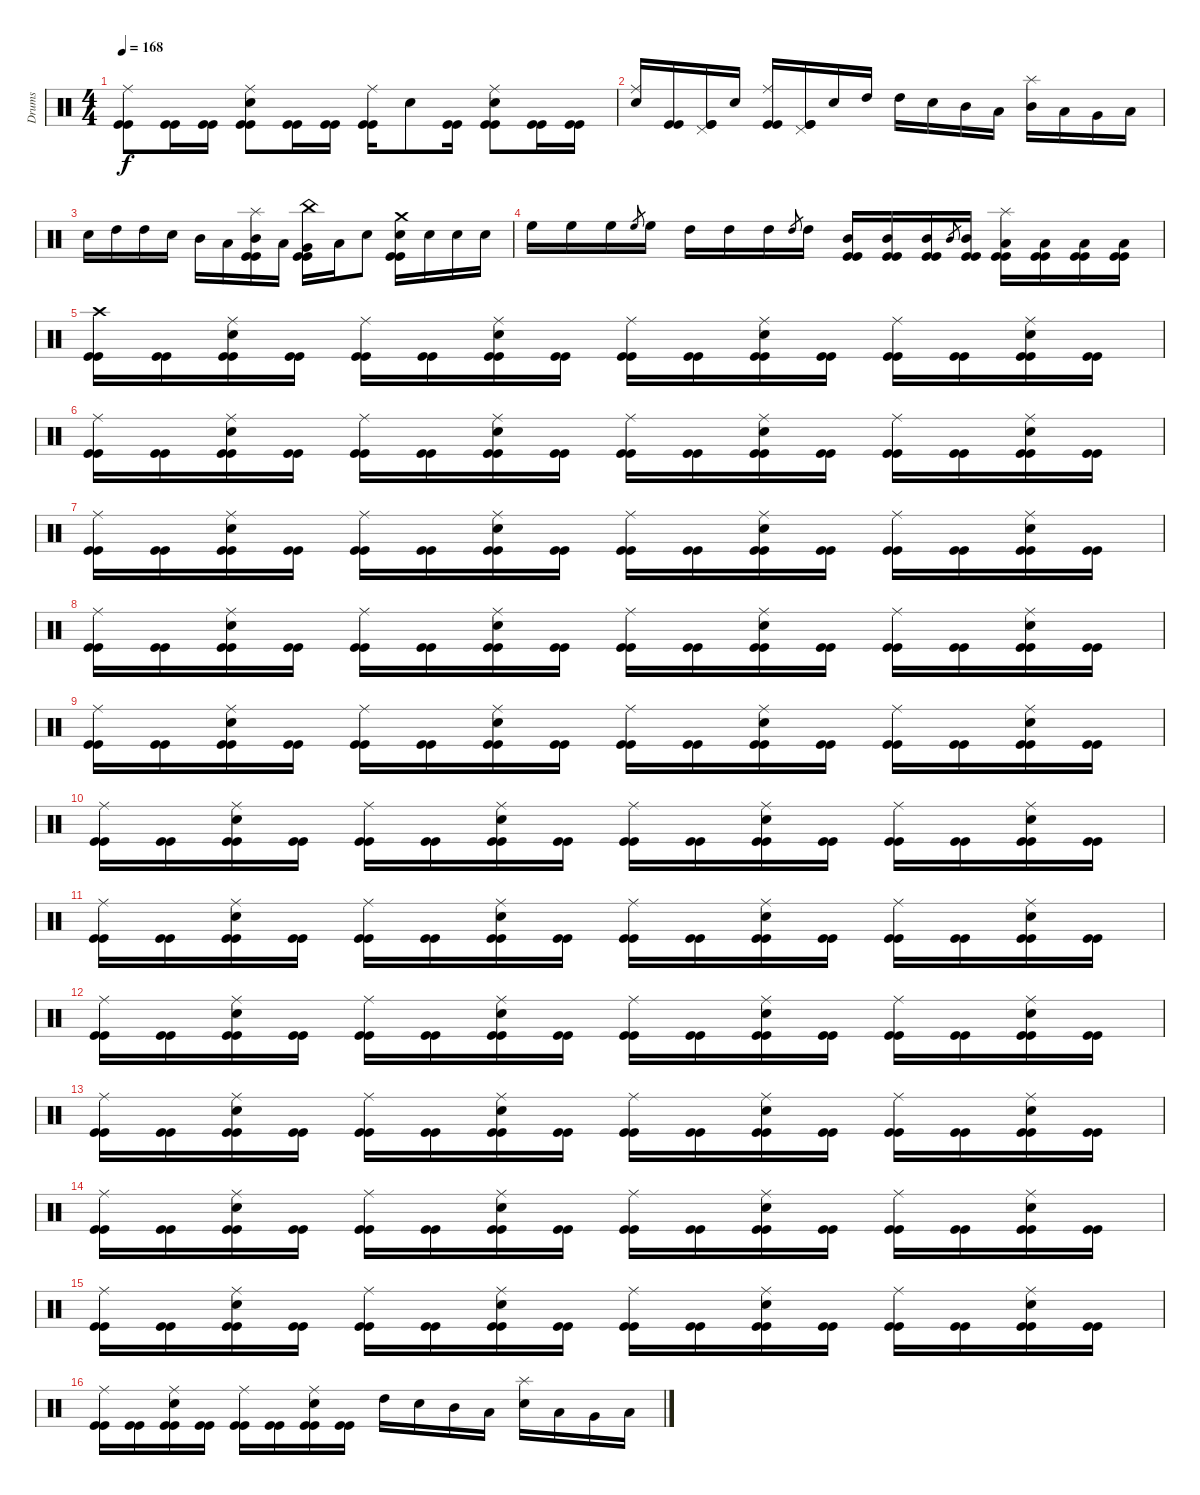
\track ("Drums" "Drums") {instrument percussion}
\staff {score}
\articulation defaults
\ts (4 4)
\tempo 168
\clef neutral
\ks c
("Ride (middle)" "Kick (hit)" "Kick (hit)").8{dy f} ("Kick (hit)" "Kick (hit)").16 ("Kick (hit)" "Kick (hit)").16 ("Ride (middle)" "Electric Snare (hit)" "Kick (hit)" "Kick (hit)").8 ("Kick (hit)" "Kick (hit)").16 ("Kick (hit)" "Kick (hit)").16 ("Ride (middle)" "Kick (hit)" "Kick (hit)").16 "Electric Snare (hit)".8 ("Kick (hit)" "Kick (hit)").16 ("Ride (middle)" "Electric Snare (hit)" "Kick (hit)" "Kick (hit)").8 ("Kick (hit)" "Kick (hit)").16 ("Kick (hit)" "Kick (hit)").16 |
("Ride (middle)" "Electric Snare (hit)").16 ("Kick (hit)" "Kick (hit)").16 ("Pedal Hi-Hat (hit)" "Kick (hit)" "Kick (hit)").16 "Electric Snare (hit)".16 ("Ride (middle)" "Kick (hit)" "Kick (hit)").16 ("Pedal Hi-Hat (hit)" "Kick (hit)" "Kick (hit)").16 "Electric Snare (hit)".16 "High Tom (hit)".16 "High Tom (hit)".16 "Electric Snare (hit)".16 "Mid Tom (hit)".16 "Low Tom (hit)".16 ("Splash (hit)" "Mid Tom (hit)").16 "Low Tom (hit)".16 "Very Low Tom (hit)".16 "Low Floor Tom (hit)".16 |
"Electric Snare (hit)".16 "High Tom (hit)".16 "High Tom (hit)".16 "Electric Snare (hit)".16 "Mid Tom (hit)".16 "Low Tom (hit)".16 ("Splash (hit)" "Mid Tom (hit)" "Kick (hit)" "Kick (hit)").16 "Low Tom (hit)".16 ("China (hit)" "Very Low Tom (hit)" "Kick (hit)" "Kick (hit)").16 "Low Floor Tom (hit)".16 "Electric Snare (hit)".8 ("Crash medium (hit)" "Electric Snare (hit)" "Kick (hit)" "Kick (hit)").16 "Electric Snare (hit)".16 "Electric Snare (hit)".16 "Electric Snare (hit)".16 |
"High Floor Tom (hit)".16 "High Floor Tom (hit)".16 "High Floor Tom (hit)".16 "High Floor Tom (hit)".8{gr} "High Floor Tom (hit)".16 "High Tom (hit)".16 "High Tom (hit)".16 "High Tom (hit)".16 "High Tom (hit)".8{gr} "High Tom (hit)".16 ("Mid Tom (hit)" "Kick (hit)" "Kick (hit)").16 ("Mid Tom (hit)" "Kick (hit)" "Kick (hit)").16 ("Mid Tom (hit)" "Kick (hit)" "Kick (hit)").16 "Mid Tom (hit)".8{gr} ("Mid Tom (hit)" "Kick (hit)" "Kick (hit)").16 ("Splash (hit)" "Low Tom (hit)" "Kick (hit)" "Kick (hit)").16 ("Low Tom (hit)" "Kick (hit)" "Kick (hit)").16 ("Low Tom (hit)" "Kick (hit)" "Kick (hit)").16 ("Low Tom (hit)" "Kick (hit)" "Kick (hit)").16 |
("Crash high (hit)" "Kick (hit)" "Kick (hit)").16 ("Kick (hit)" "Kick (hit)").16 ("Ride (middle)" "Electric Snare (hit)" "Kick (hit)" "Kick (hit)").16 ("Kick (hit)" "Kick (hit)").16 ("Ride (middle)" "Kick (hit)" "Kick (hit)").16 ("Kick (hit)" "Kick (hit)").16 ("Ride (middle)" "Electric Snare (hit)" "Kick (hit)" "Kick (hit)").16 ("Kick (hit)" "Kick (hit)").16 ("Ride (middle)" "Kick (hit)" "Kick (hit)").16 ("Kick (hit)" "Kick (hit)").16 ("Ride (middle)" "Electric Snare (hit)" "Kick (hit)" "Kick (hit)").16 ("Kick (hit)" "Kick (hit)").16 ("Ride (middle)" "Kick (hit)" "Kick (hit)").16 ("Kick (hit)" "Kick (hit)").16 ("Ride (middle)" "Electric Snare (hit)" "Kick (hit)" "Kick (hit)").16 ("Kick (hit)" "Kick (hit)").16 |
("Ride (middle)" "Kick (hit)" "Kick (hit)").16 ("Kick (hit)" "Kick (hit)").16 ("Ride (middle)" "Electric Snare (hit)" "Kick (hit)" "Kick (hit)").16 ("Kick (hit)" "Kick (hit)").16 ("Ride (middle)" "Kick (hit)" "Kick (hit)").16 ("Kick (hit)" "Kick (hit)").16 ("Ride (middle)" "Electric Snare (hit)" "Kick (hit)" "Kick (hit)").16 ("Kick (hit)" "Kick (hit)").16 ("Ride (middle)" "Kick (hit)" "Kick (hit)").16 ("Kick (hit)" "Kick (hit)").16 ("Ride (middle)" "Electric Snare (hit)" "Kick (hit)" "Kick (hit)").16 ("Kick (hit)" "Kick (hit)").16 ("Ride (middle)" "Kick (hit)" "Kick (hit)").16 ("Kick (hit)" "Kick (hit)").16 ("Ride (middle)" "Electric Snare (hit)" "Kick (hit)" "Kick (hit)").16 ("Kick (hit)" "Kick (hit)").16 |
("Ride (middle)" "Kick (hit)" "Kick (hit)").16 ("Kick (hit)" "Kick (hit)").16 ("Ride (middle)" "Electric Snare (hit)" "Kick (hit)" "Kick (hit)").16 ("Kick (hit)" "Kick (hit)").16 ("Ride (middle)" "Kick (hit)" "Kick (hit)").16 ("Kick (hit)" "Kick (hit)").16 ("Ride (middle)" "Electric Snare (hit)" "Kick (hit)" "Kick (hit)").16 ("Kick (hit)" "Kick (hit)").16 ("Ride (middle)" "Kick (hit)" "Kick (hit)").16 ("Kick (hit)" "Kick (hit)").16 ("Ride (middle)" "Electric Snare (hit)" "Kick (hit)" "Kick (hit)").16 ("Kick (hit)" "Kick (hit)").16 ("Ride (middle)" "Kick (hit)" "Kick (hit)").16 ("Kick (hit)" "Kick (hit)").16 ("Ride (middle)" "Electric Snare (hit)" "Kick (hit)" "Kick (hit)").16 ("Kick (hit)" "Kick (hit)").16 |
("Ride (middle)" "Kick (hit)" "Kick (hit)").16 ("Kick (hit)" "Kick (hit)").16 ("Ride (middle)" "Electric Snare (hit)" "Kick (hit)" "Kick (hit)").16 ("Kick (hit)" "Kick (hit)").16 ("Ride (middle)" "Kick (hit)" "Kick (hit)").16 ("Kick (hit)" "Kick (hit)").16 ("Ride (middle)" "Electric Snare (hit)" "Kick (hit)" "Kick (hit)").16 ("Kick (hit)" "Kick (hit)").16 ("Ride (middle)" "Kick (hit)" "Kick (hit)").16 ("Kick (hit)" "Kick (hit)").16 ("Ride (middle)" "Electric Snare (hit)" "Kick (hit)" "Kick (hit)").16 ("Kick (hit)" "Kick (hit)").16 ("Ride (middle)" "Kick (hit)" "Kick (hit)").16 ("Kick (hit)" "Kick (hit)").16 ("Ride (middle)" "Electric Snare (hit)" "Kick (hit)" "Kick (hit)").16 ("Kick (hit)" "Kick (hit)").16 |
("Ride (middle)" "Kick (hit)" "Kick (hit)").16 ("Kick (hit)" "Kick (hit)").16 ("Ride (middle)" "Electric Snare (hit)" "Kick (hit)" "Kick (hit)").16 ("Kick (hit)" "Kick (hit)").16 ("Ride (middle)" "Kick (hit)" "Kick (hit)").16 ("Kick (hit)" "Kick (hit)").16 ("Ride (middle)" "Electric Snare (hit)" "Kick (hit)" "Kick (hit)").16 ("Kick (hit)" "Kick (hit)").16 ("Ride (middle)" "Kick (hit)" "Kick (hit)").16 ("Kick (hit)" "Kick (hit)").16 ("Ride (middle)" "Electric Snare (hit)" "Kick (hit)" "Kick (hit)").16 ("Kick (hit)" "Kick (hit)").16 ("Ride (middle)" "Kick (hit)" "Kick (hit)").16 ("Kick (hit)" "Kick (hit)").16 ("Ride (middle)" "Electric Snare (hit)" "Kick (hit)" "Kick (hit)").16 ("Kick (hit)" "Kick (hit)").16 |
("Ride (middle)" "Kick (hit)" "Kick (hit)").16 ("Kick (hit)" "Kick (hit)").16 ("Ride (middle)" "Electric Snare (hit)" "Kick (hit)" "Kick (hit)").16 ("Kick (hit)" "Kick (hit)").16 ("Ride (middle)" "Kick (hit)" "Kick (hit)").16 ("Kick (hit)" "Kick (hit)").16 ("Ride (middle)" "Electric Snare (hit)" "Kick (hit)" "Kick (hit)").16 ("Kick (hit)" "Kick (hit)").16 ("Ride (middle)" "Kick (hit)" "Kick (hit)").16 ("Kick (hit)" "Kick (hit)").16 ("Ride (middle)" "Electric Snare (hit)" "Kick (hit)" "Kick (hit)").16 ("Kick (hit)" "Kick (hit)").16 ("Ride (middle)" "Kick (hit)" "Kick (hit)").16 ("Kick (hit)" "Kick (hit)").16 ("Ride (middle)" "Electric Snare (hit)" "Kick (hit)" "Kick (hit)").16 ("Kick (hit)" "Kick (hit)").16 |
("Ride (middle)" "Kick (hit)" "Kick (hit)").16 ("Kick (hit)" "Kick (hit)").16 ("Ride (middle)" "Electric Snare (hit)" "Kick (hit)" "Kick (hit)").16 ("Kick (hit)" "Kick (hit)").16 ("Ride (middle)" "Kick (hit)" "Kick (hit)").16 ("Kick (hit)" "Kick (hit)").16 ("Ride (middle)" "Electric Snare (hit)" "Kick (hit)" "Kick (hit)").16 ("Kick (hit)" "Kick (hit)").16 ("Ride (middle)" "Kick (hit)" "Kick (hit)").16 ("Kick (hit)" "Kick (hit)").16 ("Ride (middle)" "Electric Snare (hit)" "Kick (hit)" "Kick (hit)").16 ("Kick (hit)" "Kick (hit)").16 ("Ride (middle)" "Kick (hit)" "Kick (hit)").16 ("Kick (hit)" "Kick (hit)").16 ("Ride (middle)" "Electric Snare (hit)" "Kick (hit)" "Kick (hit)").16 ("Kick (hit)" "Kick (hit)").16 |
("Ride (middle)" "Kick (hit)" "Kick (hit)").16 ("Kick (hit)" "Kick (hit)").16 ("Ride (middle)" "Electric Snare (hit)" "Kick (hit)" "Kick (hit)").16 ("Kick (hit)" "Kick (hit)").16 ("Ride (middle)" "Kick (hit)" "Kick (hit)").16 ("Kick (hit)" "Kick (hit)").16 ("Ride (middle)" "Electric Snare (hit)" "Kick (hit)" "Kick (hit)").16 ("Kick (hit)" "Kick (hit)").16 ("Ride (middle)" "Kick (hit)" "Kick (hit)").16 ("Kick (hit)" "Kick (hit)").16 ("Ride (middle)" "Electric Snare (hit)" "Kick (hit)" "Kick (hit)").16 ("Kick (hit)" "Kick (hit)").16 ("Ride (middle)" "Kick (hit)" "Kick (hit)").16 ("Kick (hit)" "Kick (hit)").16 ("Ride (middle)" "Electric Snare (hit)" "Kick (hit)" "Kick (hit)").16 ("Kick (hit)" "Kick (hit)").16 |
("Ride (middle)" "Kick (hit)" "Kick (hit)").16 ("Kick (hit)" "Kick (hit)").16 ("Ride (middle)" "Electric Snare (hit)" "Kick (hit)" "Kick (hit)").16 ("Kick (hit)" "Kick (hit)").16 ("Ride (middle)" "Kick (hit)" "Kick (hit)").16 ("Kick (hit)" "Kick (hit)").16 ("Ride (middle)" "Electric Snare (hit)" "Kick (hit)" "Kick (hit)").16 ("Kick (hit)" "Kick (hit)").16 ("Ride (middle)" "Kick (hit)" "Kick (hit)").16 ("Kick (hit)" "Kick (hit)").16 ("Ride (middle)" "Electric Snare (hit)" "Kick (hit)" "Kick (hit)").16 ("Kick (hit)" "Kick (hit)").16 ("Ride (middle)" "Kick (hit)" "Kick (hit)").16 ("Kick (hit)" "Kick (hit)").16 ("Ride (middle)" "Electric Snare (hit)" "Kick (hit)" "Kick (hit)").16 ("Kick (hit)" "Kick (hit)").16 |
("Ride (middle)" "Kick (hit)" "Kick (hit)").16 ("Kick (hit)" "Kick (hit)").16 ("Ride (middle)" "Electric Snare (hit)" "Kick (hit)" "Kick (hit)").16 ("Kick (hit)" "Kick (hit)").16 ("Ride (middle)" "Kick (hit)" "Kick (hit)").16 ("Kick (hit)" "Kick (hit)").16 ("Ride (middle)" "Electric Snare (hit)" "Kick (hit)" "Kick (hit)").16 ("Kick (hit)" "Kick (hit)").16 ("Ride (middle)" "Kick (hit)" "Kick (hit)").16 ("Kick (hit)" "Kick (hit)").16 ("Ride (middle)" "Electric Snare (hit)" "Kick (hit)" "Kick (hit)").16 ("Kick (hit)" "Kick (hit)").16 ("Ride (middle)" "Kick (hit)" "Kick (hit)").16 ("Kick (hit)" "Kick (hit)").16 ("Ride (middle)" "Electric Snare (hit)" "Kick (hit)" "Kick (hit)").16 ("Kick (hit)" "Kick (hit)").16 |
("Ride (middle)" "Kick (hit)" "Kick (hit)").16 ("Kick (hit)" "Kick (hit)").16 ("Ride (middle)" "Electric Snare (hit)" "Kick (hit)" "Kick (hit)").16 ("Kick (hit)" "Kick (hit)").16 ("Ride (middle)" "Kick (hit)" "Kick (hit)").16 ("Kick (hit)" "Kick (hit)").16 ("Ride (middle)" "Electric Snare (hit)" "Kick (hit)" "Kick (hit)").16 ("Kick (hit)" "Kick (hit)").16 ("Ride (middle)" "Kick (hit)" "Kick (hit)").16 ("Kick (hit)" "Kick (hit)").16 ("Ride (middle)" "Electric Snare (hit)" "Kick (hit)" "Kick (hit)").16 ("Kick (hit)" "Kick (hit)").16 ("Ride (middle)" "Kick (hit)" "Kick (hit)").16 ("Kick (hit)" "Kick (hit)").16 ("Ride (middle)" "Electric Snare (hit)" "Kick (hit)" "Kick (hit)").16 ("Kick (hit)" "Kick (hit)").16 |
("Ride (middle)" "Kick (hit)" "Kick (hit)").16 ("Kick (hit)" "Kick (hit)").16 ("Ride (middle)" "Electric Snare (hit)" "Kick (hit)" "Kick (hit)").16 ("Kick (hit)" "Kick (hit)").16 ("Ride (middle)" "Kick (hit)" "Kick (hit)").16 ("Kick (hit)" "Kick (hit)").16 ("Ride (middle)" "Electric Snare (hit)" "Kick (hit)" "Kick (hit)").16 ("Kick (hit)" "Kick (hit)").16 "High Tom (hit)".16 "Electric Snare (hit)".16 "Mid Tom (hit)".16 "Low Tom (hit)".16 ("Splash (hit)" "Electric Snare (hit)").16 "Low Tom (hit)".16 "Very Low Tom (hit)".16 "Low Floor Tom (hit)".16
